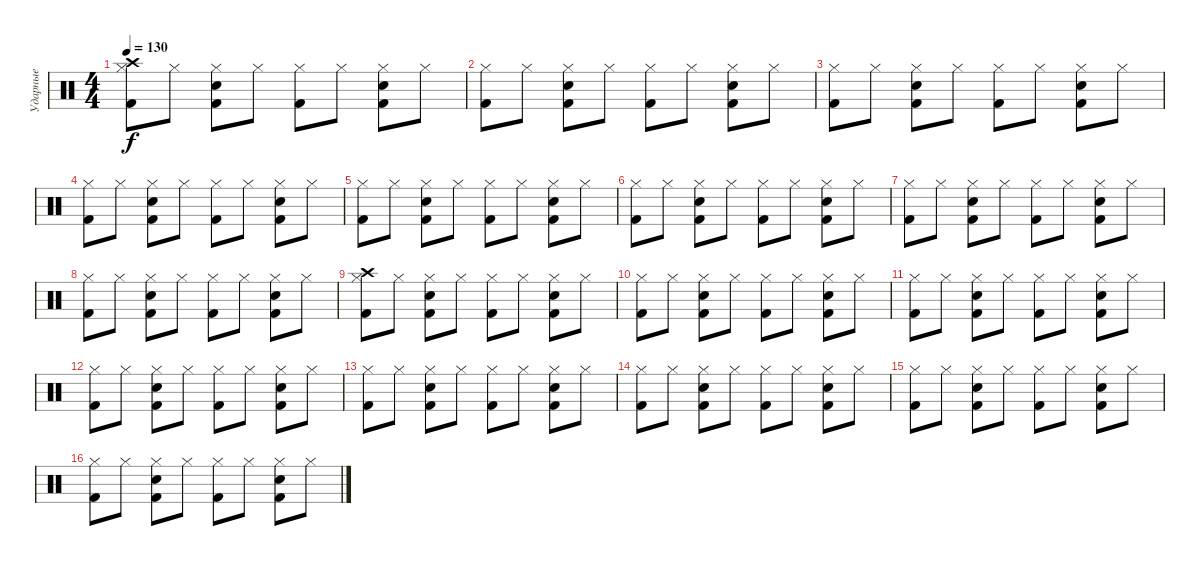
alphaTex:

\track ("Ударные" "Ударные") {instrument percussion}
\staff {score}
\articulation defaults
\ts (4 4)
\tempo 130
\clef neutral
\ks c
("Crash high (hit)" "Hi-Hat (closed)" "Kick (hit) 2").8{dy f} "Hi-Hat (closed)".8 ("Hi-Hat (closed)" "Snare (hit) 2" "Kick (hit) 2").8 "Hi-Hat (closed)".8 ("Hi-Hat (closed)" "Kick (hit) 2").8 "Hi-Hat (closed)".8 ("Hi-Hat (closed)" "Snare (hit) 2" "Kick (hit) 2").8 "Hi-Hat (closed)".8 |
("Hi-Hat (closed)" "Kick (hit) 2").8 "Hi-Hat (closed)".8 ("Hi-Hat (closed)" "Snare (hit) 2" "Kick (hit) 2").8 "Hi-Hat (closed)".8 ("Hi-Hat (closed)" "Kick (hit) 2").8 "Hi-Hat (closed)".8 ("Hi-Hat (closed)" "Snare (hit) 2" "Kick (hit) 2").8 "Hi-Hat (closed)".8 |
("Hi-Hat (closed)" "Kick (hit) 2").8 "Hi-Hat (closed)".8 ("Hi-Hat (closed)" "Snare (hit) 2" "Kick (hit) 2").8 "Hi-Hat (closed)".8 ("Hi-Hat (closed)" "Kick (hit) 2").8 "Hi-Hat (closed)".8 ("Hi-Hat (closed)" "Snare (hit) 2" "Kick (hit) 2").8 "Hi-Hat (closed)".8 |
("Hi-Hat (closed)" "Kick (hit) 2").8 "Hi-Hat (closed)".8 ("Hi-Hat (closed)" "Snare (hit) 2" "Kick (hit) 2").8 "Hi-Hat (closed)".8 ("Hi-Hat (closed)" "Kick (hit) 2").8 "Hi-Hat (closed)".8 ("Hi-Hat (closed)" "Snare (hit) 2" "Kick (hit) 2").8 "Hi-Hat (closed)".8 |
("Hi-Hat (closed)" "Kick (hit) 2").8 "Hi-Hat (closed)".8 ("Hi-Hat (closed)" "Snare (hit) 2" "Kick (hit) 2").8 "Hi-Hat (closed)".8 ("Hi-Hat (closed)" "Kick (hit) 2").8 "Hi-Hat (closed)".8 ("Hi-Hat (closed)" "Snare (hit) 2" "Kick (hit) 2").8 "Hi-Hat (closed)".8 |
("Hi-Hat (closed)" "Kick (hit) 2").8 "Hi-Hat (closed)".8 ("Hi-Hat (closed)" "Snare (hit) 2" "Kick (hit) 2").8 "Hi-Hat (closed)".8 ("Hi-Hat (closed)" "Kick (hit) 2").8 "Hi-Hat (closed)".8 ("Hi-Hat (closed)" "Snare (hit) 2" "Kick (hit) 2").8 "Hi-Hat (closed)".8 |
("Hi-Hat (closed)" "Kick (hit) 2").8 "Hi-Hat (closed)".8 ("Hi-Hat (closed)" "Snare (hit) 2" "Kick (hit) 2").8 "Hi-Hat (closed)".8 ("Hi-Hat (closed)" "Kick (hit) 2").8 "Hi-Hat (closed)".8 ("Hi-Hat (closed)" "Snare (hit) 2" "Kick (hit) 2").8 "Hi-Hat (closed)".8 |
("Hi-Hat (closed)" "Kick (hit) 2").8 "Hi-Hat (closed)".8 ("Hi-Hat (closed)" "Snare (hit) 2" "Kick (hit) 2").8 "Hi-Hat (closed)".8 ("Hi-Hat (closed)" "Kick (hit) 2").8 "Hi-Hat (closed)".8 ("Hi-Hat (closed)" "Snare (hit) 2" "Kick (hit) 2").8 "Hi-Hat (closed)".8 |
("Crash high (hit)" "Hi-Hat (closed)" "Kick (hit) 2").8 "Hi-Hat (closed)".8 ("Hi-Hat (closed)" "Snare (hit) 2" "Kick (hit) 2").8 "Hi-Hat (closed)".8 ("Hi-Hat (closed)" "Kick (hit) 2").8 "Hi-Hat (closed)".8 ("Hi-Hat (closed)" "Snare (hit) 2" "Kick (hit) 2").8 "Hi-Hat (closed)".8 |
("Hi-Hat (closed)" "Kick (hit) 2").8 "Hi-Hat (closed)".8 ("Hi-Hat (closed)" "Snare (hit) 2" "Kick (hit) 2").8 "Hi-Hat (closed)".8 ("Hi-Hat (closed)" "Kick (hit) 2").8 "Hi-Hat (closed)".8 ("Hi-Hat (closed)" "Snare (hit) 2" "Kick (hit) 2").8 "Hi-Hat (closed)".8 |
("Hi-Hat (closed)" "Kick (hit) 2").8 "Hi-Hat (closed)".8 ("Hi-Hat (closed)" "Snare (hit) 2" "Kick (hit) 2").8 "Hi-Hat (closed)".8 ("Hi-Hat (closed)" "Kick (hit) 2").8 "Hi-Hat (closed)".8 ("Hi-Hat (closed)" "Snare (hit) 2" "Kick (hit) 2").8 "Hi-Hat (closed)".8 |
("Hi-Hat (closed)" "Kick (hit) 2").8 "Hi-Hat (closed)".8 ("Hi-Hat (closed)" "Snare (hit) 2" "Kick (hit) 2").8 "Hi-Hat (closed)".8 ("Hi-Hat (closed)" "Kick (hit) 2").8 "Hi-Hat (closed)".8 ("Hi-Hat (closed)" "Snare (hit) 2" "Kick (hit) 2").8 "Hi-Hat (closed)".8 |
("Hi-Hat (closed)" "Kick (hit) 2").8 "Hi-Hat (closed)".8 ("Hi-Hat (closed)" "Snare (hit) 2" "Kick (hit) 2").8 "Hi-Hat (closed)".8 ("Hi-Hat (closed)" "Kick (hit) 2").8 "Hi-Hat (closed)".8 ("Hi-Hat (closed)" "Snare (hit) 2" "Kick (hit) 2").8 "Hi-Hat (closed)".8 |
("Hi-Hat (closed)" "Kick (hit) 2").8 "Hi-Hat (closed)".8 ("Hi-Hat (closed)" "Snare (hit) 2" "Kick (hit) 2").8 "Hi-Hat (closed)".8 ("Hi-Hat (closed)" "Kick (hit) 2").8 "Hi-Hat (closed)".8 ("Hi-Hat (closed)" "Snare (hit) 2" "Kick (hit) 2").8 "Hi-Hat (closed)".8 |
("Hi-Hat (closed)" "Kick (hit) 2").8 "Hi-Hat (closed)".8 ("Hi-Hat (closed)" "Snare (hit) 2" "Kick (hit) 2").8 "Hi-Hat (closed)".8 ("Hi-Hat (closed)" "Kick (hit) 2").8 "Hi-Hat (closed)".8 ("Hi-Hat (closed)" "Snare (hit) 2" "Kick (hit) 2").8 "Hi-Hat (closed)".8 |
("Hi-Hat (closed)" "Kick (hit) 2").8 "Hi-Hat (closed)".8 ("Hi-Hat (closed)" "Snare (hit) 2" "Kick (hit) 2").8 "Hi-Hat (closed)".8 ("Hi-Hat (closed)" "Kick (hit) 2").8 "Hi-Hat (closed)".8 ("Hi-Hat (closed)" "Snare (hit) 2" "Kick (hit) 2").8 "Hi-Hat (closed)".8
